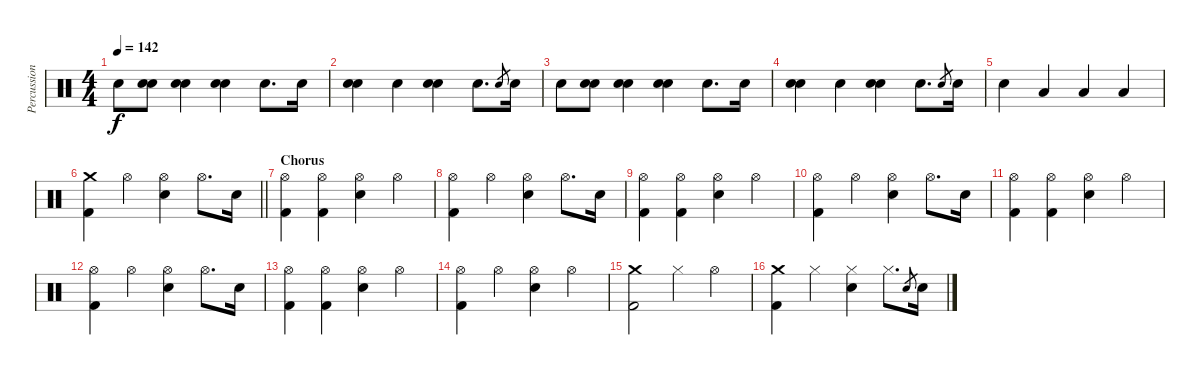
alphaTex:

\track ("Percussions" "Percussion") {instrument percussion}
\staff {score}
\articulation defaults
\ts (4 4)
\tempo 142
\clef neutral
\ks c "Electric Snare (hit)".8{dy f}
("Electric Snare (hit)" "Electric Snare (hit)").8 ("Electric Snare (hit)" "Electric Snare (hit)").4 ("Electric Snare (hit)" "Electric Snare (hit)").4 "Electric Snare (hit)".8{d} "Electric Snare (hit)".16 |
("Electric Snare (hit)" "Electric Snare (hit)").4 "Electric Snare (hit)".4 ("Electric Snare (hit)" "Electric Snare (hit)").4 "Electric Snare (hit)".8{d} "Electric Snare (hit)".8{gr} "Electric Snare (hit)".16 |
"Electric Snare (hit)".8 ("Electric Snare (hit)" "Electric Snare (hit)").8 ("Electric Snare (hit)" "Electric Snare (hit)").4 ("Electric Snare (hit)" "Electric Snare (hit)").4 "Electric Snare (hit)".8{d} "Electric Snare (hit)".16 |
("Electric Snare (hit)" "Electric Snare (hit)").4 "Electric Snare (hit)".4 ("Electric Snare (hit)" "Electric Snare (hit)").4 "Electric Snare (hit)".8{d} "Electric Snare (hit)".8{gr} "Electric Snare (hit)".16 |
"Electric Snare (hit)".4 "Low Tom (hit)".4 "Low Tom (hit)".4 "Low Floor Tom (hit)".4 |
\barLineRight lightlight
("Crash medium (hit)" "Kick (hit) 2").4 "Hi-Hat (open)".4 ("Hi-Hat (open)" "Electric Snare (hit)").4 "Hi-Hat (open)".8{d} "Electric Snare (hit)".16 |
\section ("" "Chorus")
("Hi-Hat (open)" "Kick (hit) 2").4 ("Hi-Hat (open)" "Kick (hit) 2").4 ("Hi-Hat (open)" "Electric Snare (hit)").4 "Hi-Hat (open)".4 |
("Hi-Hat (open)" "Kick (hit) 2").4 "Hi-Hat (open)".4 ("Hi-Hat (open)" "Electric Snare (hit)").4 "Hi-Hat (open)".8{d} "Electric Snare (hit)".16 |
("Hi-Hat (open)" "Kick (hit) 2").4 ("Hi-Hat (open)" "Kick (hit) 2").4 ("Hi-Hat (open)" "Electric Snare (hit)").4 "Hi-Hat (open)".4 |
("Hi-Hat (open)" "Kick (hit) 2").4 "Hi-Hat (open)".4 ("Hi-Hat (open)" "Electric Snare (hit)").4 "Hi-Hat (open)".8{d} "Electric Snare (hit)".16 |
("Hi-Hat (open)" "Kick (hit) 2").4 ("Hi-Hat (open)" "Kick (hit) 2").4 ("Hi-Hat (open)" "Electric Snare (hit)").4 "Hi-Hat (open)".4 |
("Hi-Hat (open)" "Kick (hit) 2").4 "Hi-Hat (open)".4 ("Hi-Hat (open)" "Electric Snare (hit)").4 "Hi-Hat (open)".8{d} "Electric Snare (hit)".16 |
("Hi-Hat (open)" "Kick (hit) 2").4 ("Hi-Hat (open)" "Kick (hit) 2").4 ("Hi-Hat (open)" "Electric Snare (hit)").4 "Hi-Hat (open)".4 |
("Hi-Hat (open)" "Kick (hit) 2").4 "Hi-Hat (open)".4 ("Hi-Hat (open)" "Electric Snare (hit)").4 "Hi-Hat (open)".4 |
("Crash medium (hit)" "Kick (hit) 2").2 "Hi-Hat (closed)".4 "Hi-Hat (open)".4 |
("Crash medium (hit)" "Kick (hit) 2").4 "Hi-Hat (closed)".4 ("Hi-Hat (closed)" "Electric Snare (hit)").4 "Hi-Hat (closed)".8{d} "Electric Snare (hit)".8{gr} "Electric Snare (hit)".16
